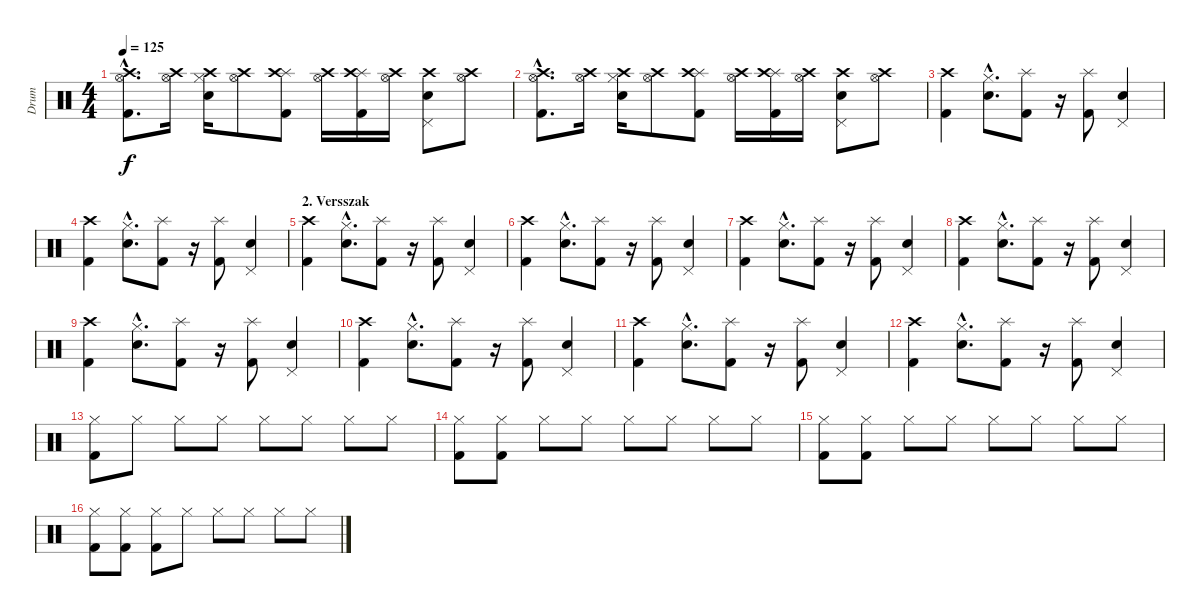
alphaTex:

\track ("Drum" "Drum") {instrument percussion}
\staff {score}
\articulation defaults
\ts (4 4)
\tempo 125
\clef neutral
\ks c
("Kick (hit) 2"{hac} "Crash high (hit)"{hac} "Hi-Hat (open)"{hac}).8{d dy f} ("Hi-Hat (open)" "Crash high (hit)").16 ("Snare (hit) 2" "Hi-Hat (closed)" "Crash high (hit)").16 ("Hi-Hat (open)" "Crash high (hit)").8 ("Kick (hit) 2" "Splash (hit)" "Crash high (hit)").8 ("Hi-Hat (open)" "Crash high (hit)").16 ("Kick (hit) 2" "Splash (hit)" "Crash high (hit)").16 ("Hi-Hat (open)" "Crash high (hit)").16 ("Snare (hit) 2" "Pedal Hi-Hat (hit)" "Crash high (hit)").8 ("Hi-Hat (open)" "Crash high (hit)").8 |
("Kick (hit) 2"{hac} "Crash high (hit)"{hac} "Hi-Hat (open)"{hac}).8{d} ("Hi-Hat (open)" "Crash high (hit)").16 ("Snare (hit) 2" "Hi-Hat (closed)" "Crash high (hit)").16 ("Hi-Hat (open)" "Crash high (hit)").8 ("Kick (hit) 2" "Splash (hit)" "Crash high (hit)").8 ("Hi-Hat (open)" "Crash high (hit)").16 ("Kick (hit) 2" "Splash (hit)" "Crash high (hit)").16 ("Hi-Hat (open)" "Crash high (hit)").16 ("Snare (hit) 2" "Pedal Hi-Hat (hit)" "Crash high (hit)").8 ("Hi-Hat (open)" "Crash high (hit)").8 |
("Kick (hit) 2" "Crash high (hit)").4 ("Snare (hit) 2"{hac} "Hi-Hat (closed)"{hac}).8{d} ("Kick (hit) 2" "Splash (hit)").8 r.16 ("Kick (hit) 2" "Splash (hit)").8 ("Snare (hit) 2" "Pedal Hi-Hat (hit)").4 |
("Kick (hit) 2" "Crash high (hit)").4 ("Snare (hit) 2"{hac} "Hi-Hat (closed)"{hac}).8{d} ("Kick (hit) 2" "Splash (hit)").8 r.16 ("Kick (hit) 2" "Splash (hit)").8 ("Snare (hit) 2" "Pedal Hi-Hat (hit)").4 |
\section ("" "2. Versszak")
("Kick (hit) 2" "Crash high (hit)").4 ("Snare (hit) 2"{hac} "Hi-Hat (closed)"{hac}).8{d} ("Kick (hit) 2" "Splash (hit)").8 r.16 ("Kick (hit) 2" "Splash (hit)").8 ("Snare (hit) 2" "Pedal Hi-Hat (hit)").4 |
("Kick (hit) 2" "Crash high (hit)").4 ("Snare (hit) 2"{hac} "Hi-Hat (closed)"{hac}).8{d} ("Kick (hit) 2" "Splash (hit)").8 r.16 ("Kick (hit) 2" "Splash (hit)").8 ("Snare (hit) 2" "Pedal Hi-Hat (hit)").4 |
("Kick (hit) 2" "Crash high (hit)").4 ("Snare (hit) 2"{hac} "Hi-Hat (closed)"{hac}).8{d} ("Kick (hit) 2" "Splash (hit)").8 r.16 ("Kick (hit) 2" "Splash (hit)").8 ("Snare (hit) 2" "Pedal Hi-Hat (hit)").4 |
("Kick (hit) 2" "Crash high (hit)").4 ("Snare (hit) 2"{hac} "Hi-Hat (closed)"{hac}).8{d} ("Kick (hit) 2" "Splash (hit)").8 r.16 ("Kick (hit) 2" "Splash (hit)").8 ("Snare (hit) 2" "Pedal Hi-Hat (hit)").4 |
("Kick (hit) 2" "Crash high (hit)").4 ("Snare (hit) 2"{hac} "Hi-Hat (closed)"{hac}).8{d} ("Kick (hit) 2" "Splash (hit)").8 r.16 ("Kick (hit) 2" "Splash (hit)").8 ("Snare (hit) 2" "Pedal Hi-Hat (hit)").4 |
("Kick (hit) 2" "Crash high (hit)").4 ("Snare (hit) 2"{hac} "Hi-Hat (closed)"{hac}).8{d} ("Kick (hit) 2" "Splash (hit)").8 r.16 ("Kick (hit) 2" "Splash (hit)").8 ("Snare (hit) 2" "Pedal Hi-Hat (hit)").4 |
("Kick (hit) 2" "Crash high (hit)").4 ("Snare (hit) 2"{hac} "Hi-Hat (closed)"{hac}).8{d} ("Kick (hit) 2" "Splash (hit)").8 r.16 ("Kick (hit) 2" "Splash (hit)").8 ("Snare (hit) 2" "Pedal Hi-Hat (hit)").4 |
("Kick (hit) 2" "Crash high (hit)").4 ("Snare (hit) 2"{hac} "Hi-Hat (closed)"{hac}).8{d} ("Kick (hit) 2" "Splash (hit)").8 r.16 ("Kick (hit) 2" "Splash (hit)").8 ("Snare (hit) 2" "Pedal Hi-Hat (hit)").4 |
("Hi-Hat (closed)" "Kick (hit) 2").8 "Hi-Hat (closed)".8 "Hi-Hat (closed)".8 "Hi-Hat (closed)".8 "Hi-Hat (closed)".8 "Hi-Hat (closed)".8 "Hi-Hat (closed)".8 "Hi-Hat (closed)".8 |
("Hi-Hat (closed)" "Kick (hit) 2").8 ("Hi-Hat (closed)" "Kick (hit) 2").8 "Hi-Hat (closed)".8 "Hi-Hat (closed)".8 "Hi-Hat (closed)".8 "Hi-Hat (closed)".8 "Hi-Hat (closed)".8 "Hi-Hat (closed)".8 |
("Hi-Hat (closed)" "Kick (hit) 2").8 ("Hi-Hat (closed)" "Kick (hit) 2").8 "Hi-Hat (closed)".8 "Hi-Hat (closed)".8 "Hi-Hat (closed)".8 "Hi-Hat (closed)".8 "Hi-Hat (closed)".8 "Hi-Hat (closed)".8 |
("Hi-Hat (closed)" "Kick (hit) 2").8 ("Hi-Hat (closed)" "Kick (hit) 2").8 ("Hi-Hat (closed)" "Kick (hit) 2").8 "Hi-Hat (closed)".8 "Hi-Hat (closed)".8 "Hi-Hat (closed)".8 "Hi-Hat (closed)".8 "Hi-Hat (closed)".8
